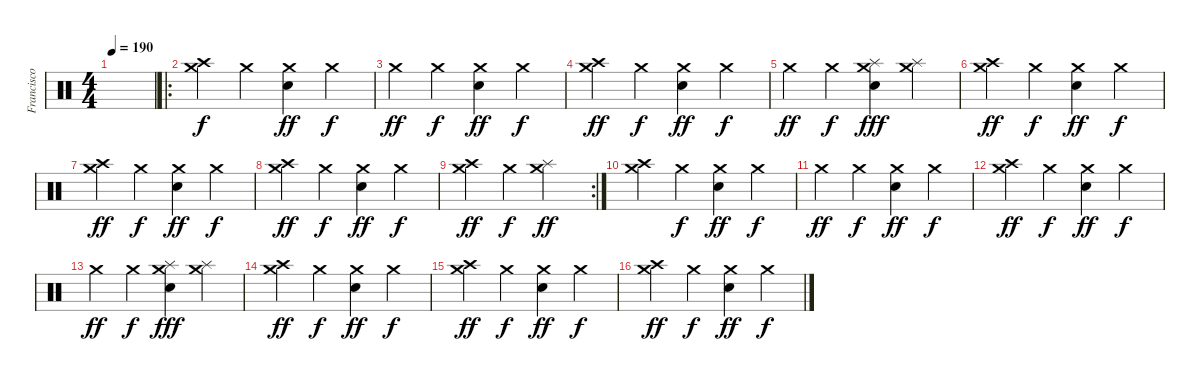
\track ("Francisco Izquierdo (Percusión)" "Francisco ") {instrument percussion}
\staff {score}
\articulation defaults
\ts (4 4)
\tempo 190
\clef neutral
\ks c
|
\ro
("Crash medium (hit)" "Crash high (hit)").4 "Crash medium (hit)".4{dy f} ("Crash medium (hit)" "Electric Snare (hit)").4{dy ff} "Crash medium (hit)".4{dy f} |
"Crash medium (hit)".4{dy ff} "Crash medium (hit)".4{dy f} ("Crash medium (hit)" "Electric Snare (hit)").4{dy ff} "Crash medium (hit)".4{dy f} |
("Crash medium (hit)" "Crash high (hit)").4{dy ff} "Crash medium (hit)".4{dy f} ("Crash medium (hit)" "Electric Snare (hit)").4{dy ff} "Crash medium (hit)".4{dy f} |
"Crash medium (hit)".4{dy ff} "Crash medium (hit)".4{dy f} ("Crash medium (hit)" "Splash (hit)" "Electric Snare (hit)").4{dy fff} ("Crash medium (hit)" "Splash (hit)").4 |
("Crash medium (hit)" "Crash high (hit)").4{dy ff} "Crash medium (hit)".4{dy f} ("Crash medium (hit)" "Electric Snare (hit)").4{dy ff} "Crash medium (hit)".4{dy f} |
("Crash medium (hit)" "Crash high (hit)").4{dy ff} "Crash medium (hit)".4{dy f} ("Crash medium (hit)" "Electric Snare (hit)").4{dy ff} "Crash medium (hit)".4{dy f} |
("Crash medium (hit)" "Crash high (hit)").4{dy ff} "Crash medium (hit)".4{dy f} ("Crash medium (hit)" "Electric Snare (hit)").4{dy ff} "Crash medium (hit)".4{dy f} |
\rc 2
("Crash medium (hit)" "Crash high (hit)").4{dy ff} "Crash medium (hit)".4{dy f} ("Crash medium (hit)" "Splash (hit)").2{dy ff} |
("Crash medium (hit)" "Crash high (hit)").4 "Crash medium (hit)".4{dy f} ("Crash medium (hit)" "Electric Snare (hit)").4{dy ff} "Crash medium (hit)".4{dy f} |
"Crash medium (hit)".4{dy ff} "Crash medium (hit)".4{dy f} ("Crash medium (hit)" "Electric Snare (hit)").4{dy ff} "Crash medium (hit)".4{dy f} |
("Crash medium (hit)" "Crash high (hit)").4{dy ff} "Crash medium (hit)".4{dy f} ("Crash medium (hit)" "Electric Snare (hit)").4{dy ff} "Crash medium (hit)".4{dy f} |
"Crash medium (hit)".4{dy ff} "Crash medium (hit)".4{dy f} ("Crash medium (hit)" "Splash (hit)" "Electric Snare (hit)").4{dy fff} ("Crash medium (hit)" "Splash (hit)").4 |
("Crash medium (hit)" "Crash high (hit)").4{dy ff} "Crash medium (hit)".4{dy f} ("Crash medium (hit)" "Electric Snare (hit)").4{dy ff} "Crash medium (hit)".4{dy f} |
("Crash medium (hit)" "Crash high (hit)").4{dy ff} "Crash medium (hit)".4{dy f} ("Crash medium (hit)" "Electric Snare (hit)").4{dy ff} "Crash medium (hit)".4{dy f} |
("Crash medium (hit)" "Crash high (hit)").4{dy ff} "Crash medium (hit)".4{dy f} ("Crash medium (hit)" "Electric Snare (hit)").4{dy ff} "Crash medium (hit)".4{dy f}
